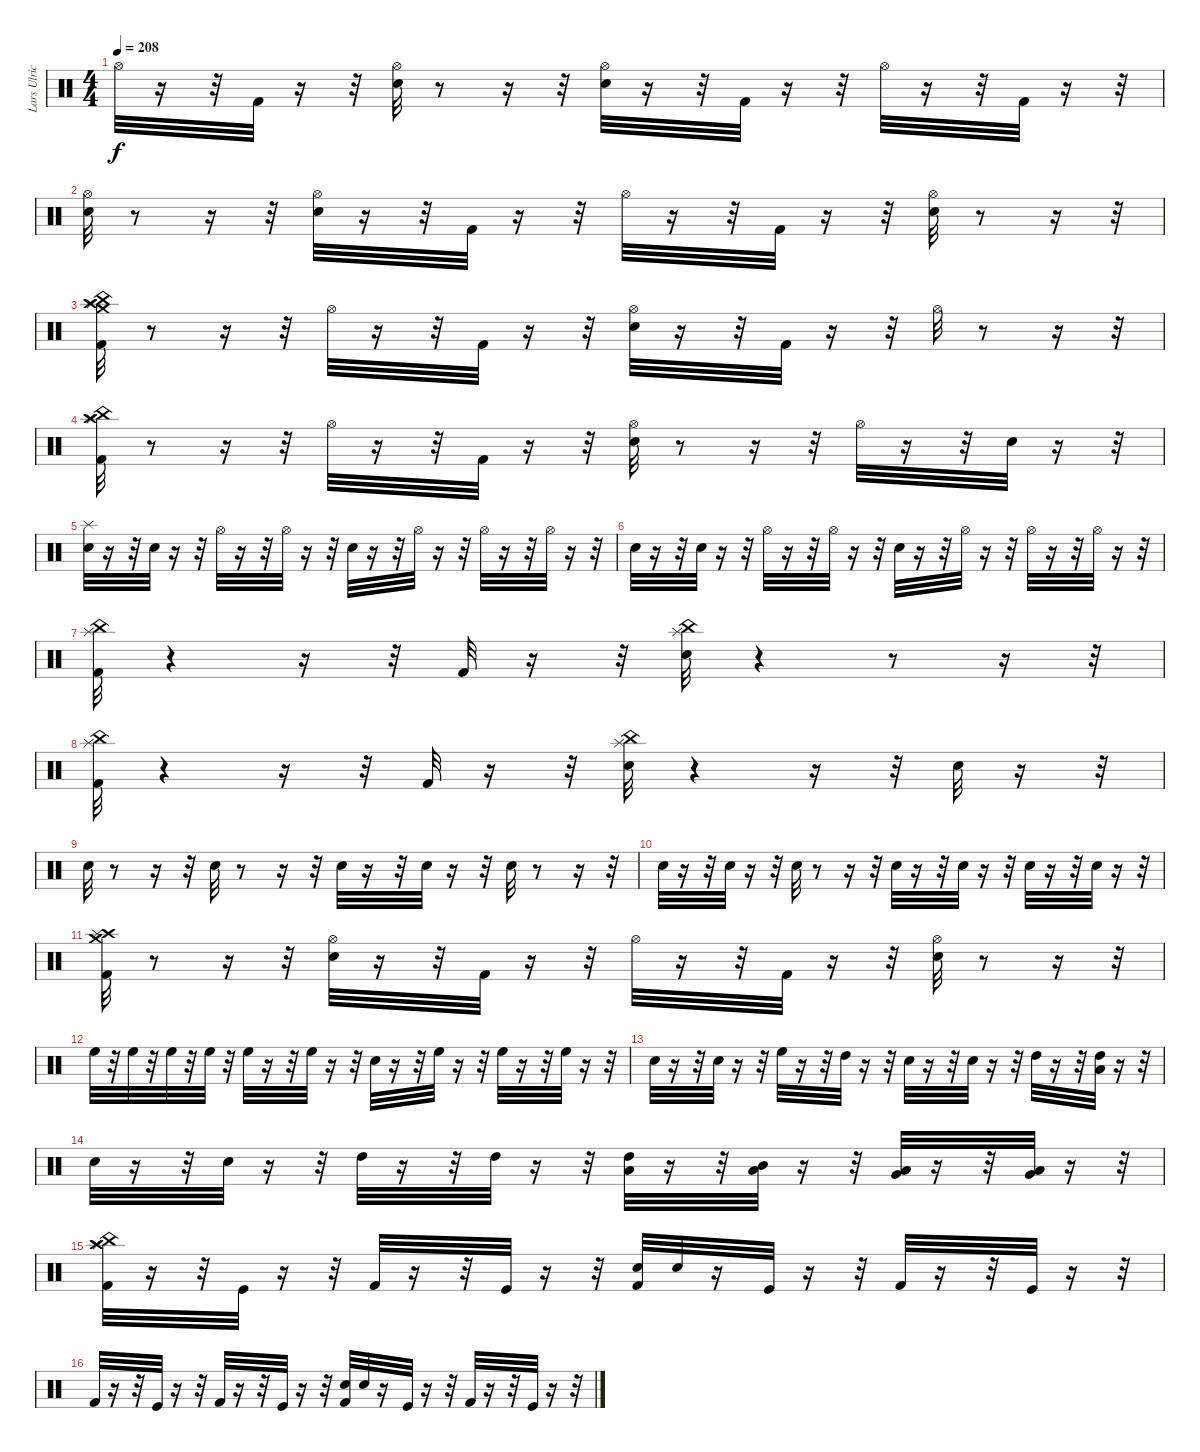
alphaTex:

\track ("Lars Ulrich (Drums)" "Lars Ulric") {instrument percussion}
\staff {score}
\articulation defaults
\ts (4 4)
\tempo 208
\clef neutral
\ks c "Hi-Hat (open)".32{dy f}
r.16 r.32 "Kick (hit) 2".32 r.16 r.32 ("Snare (hit) 2" "Hi-Hat (open)").32 r.8 r.16 r.32 ("Hi-Hat (open)" "Snare (hit) 2").32 r.16 r.32 "Kick (hit) 2".32 r.16 r.32 "Hi-Hat (open)".32 r.16 r.32 "Kick (hit) 2".32 r.16 r.32 |
("Snare (hit) 2" "Hi-Hat (open)").32 r.8 r.16 r.32 ("Hi-Hat (open)" "Snare (hit) 2").32 r.16 r.32 "Kick (hit) 2".32 r.16 r.32 "Hi-Hat (open)".32 r.16 r.32 "Kick (hit) 2".32 r.16 r.32 ("Snare (hit) 2" "Hi-Hat (open)").32 r.8 r.16 r.32 |
("China (hit)" "Kick (hit) 2" "Crash high (hit)" "Splash (hit)" "Crash medium (hit)").32 r.8 r.16 r.32 "Hi-Hat (open)".32 r.16 r.32 "Kick (hit) 2".32 r.16 r.32 ("Hi-Hat (open)" "Snare (hit) 2").32 r.16 r.32 "Kick (hit) 2".32 r.16 r.32 "Hi-Hat (open)".32 r.8 r.16 r.32 |
("China (hit)" "Splash (hit)" "Crash high (hit)" "Kick (hit) 2").32 r.8 r.16 r.32 "Hi-Hat (open)".32 r.16 r.32 "Kick (hit) 2".32 r.16 r.32 ("Snare (hit) 2" "Hi-Hat (open)").32 r.8 r.16 r.32 "Hi-Hat (open)".32 r.16 r.32 "Snare (hit) 2".32 r.16 r.32 |
("Snare (hit) 2" "Splash (hit)").32 r.16 r.32 "Snare (hit) 2".32 r.16 r.32 "Hi-Hat (open)".32 r.16 r.32 "Hi-Hat (open)".32 r.16 r.32 "Snare (hit) 2".32 r.16 r.32 "Hi-Hat (open)".32 r.16 r.32 "Hi-Hat (open)".32 r.16 r.32 "Hi-Hat (open)".32 r.16 r.32 |
"Snare (hit) 2".32 r.16 r.32 "Snare (hit) 2".32 r.16 r.32 "Hi-Hat (open)".32 r.16 r.32 "Hi-Hat (open)".32 r.16 r.32 "Snare (hit) 2".32 r.16 r.32 "Hi-Hat (open)".32 r.16 r.32 "Hi-Hat (open)".32 r.16 r.32 "Hi-Hat (open)".32 r.16 r.32 |
("Kick (hit) 2" "China (hit)" "Splash (hit)").32 r.4 r.16 r.32 "Kick (hit) 2".32 r.16 r.32 ("Snare (hit) 2" "China (hit)" "Splash (hit)").32 r.4 r.8 r.16 r.32 |
("Kick (hit) 2" "China (hit)" "Splash (hit)").32 r.4 r.16 r.32 "Kick (hit) 2".32 r.16 r.32 ("Snare (hit) 2" "China (hit)" "Splash (hit)").32 r.4 r.16 r.32 "Snare (hit) 2".32 r.16 r.32 |
"Snare (hit) 2".32 r.8 r.16 r.32 "Snare (hit) 2".32 r.8 r.16 r.32 "Snare (hit) 2".32 r.16 r.32 "Snare (hit) 2".32 r.16 r.32 "Snare (hit) 2".32 r.8 r.16 r.32 |
"Snare (hit) 2".32 r.16 r.32 "Snare (hit) 2".32 r.16 r.32 "Snare (hit) 2".32 r.8 r.16 r.32 "Snare (hit) 2".32 r.16 r.32 "Snare (hit) 2".32 r.16 r.32 "Snare (hit) 2".32 r.16 r.32 "Snare (hit) 2".32 r.16 r.32 |
("Kick (hit) 2" "Crash high (hit)" "Crash medium (hit)" "Splash (hit)").32 r.8 r.16 r.32 ("Snare (hit) 2" "Hi-Hat (open)").32 r.16 r.32 "Kick (hit) 2".32 r.16 r.32 "Hi-Hat (open)".32 r.16 r.32 "Kick (hit) 2".32 r.16 r.32 ("Snare (hit) 2" "Hi-Hat (open)").32 r.8 r.16 r.32 |
"High Floor Tom (hit)".32 r.32 "High Floor Tom (hit)".32 r.32 "High Floor Tom (hit)".32 r.32 "High Floor Tom (hit)".32 r.32 "High Floor Tom (hit)".32 r.16 r.32 "High Floor Tom (hit)".32 r.16 r.32 "Snare (hit) 2".32 r.16 r.32 "High Floor Tom (hit)".32 r.16 r.32 "High Floor Tom (hit)".32 r.16 r.32 "High Floor Tom (hit)".32 r.16 r.32 |
"Snare (hit) 2".32 r.16 r.32 "Snare (hit) 2".32 r.16 r.32 "High Floor Tom (hit)".32 r.16 r.32 "High Tom (hit)".32 r.16 r.32 "Snare (hit) 2".32 r.16 r.32 "Snare (hit) 2".32 r.16 r.32 "High Tom (hit)".32 r.16 r.32 ("Low Tom (hit)" "High Tom (hit)").32 r.16 r.32 |
"Snare (hit) 2".32 r.16 r.32 "Snare (hit) 2".32 r.16 r.32 "High Tom (hit)".32 r.16 r.32 "High Tom (hit)".32 r.16 r.32 ("Low Tom (hit)" "High Tom (hit)").32 r.16 r.32 ("Low Tom (hit)" "Mid Tom (hit)").32 r.16 r.32 ("Low Tom (hit)" "Very Low Tom (hit)").32 r.16 r.32 ("Low Floor Tom (hit)" "Very Low Tom (hit)").32 r.16 r.32 |
("China (hit)" "Crash high (hit)" "Splash (hit)" "Kick (hit) 2").32 r.16 r.32 "Kick (hit)".32 r.16 r.32 "Kick (hit) 2".32 r.16 r.32 "Kick (hit)".32 r.16 r.32 ("Snare (hit) 2" "Kick (hit) 2").32 "Snare (hit) 2".32 r.16 "Kick (hit)".32 r.16 r.32 "Kick (hit) 2".32 r.16 r.32 "Kick (hit)".32 r.16 r.32 |
"Kick (hit) 2".32 r.16 r.32 "Kick (hit)".32 r.16 r.32 "Kick (hit) 2".32 r.16 r.32 "Kick (hit)".32 r.16 r.32 ("Snare (hit) 2" "Kick (hit) 2").32 "Snare (hit) 2".32 r.16 "Kick (hit)".32 r.16 r.32 "Kick (hit) 2".32 r.16 r.32 "Kick (hit)".32 r.16 r.32
